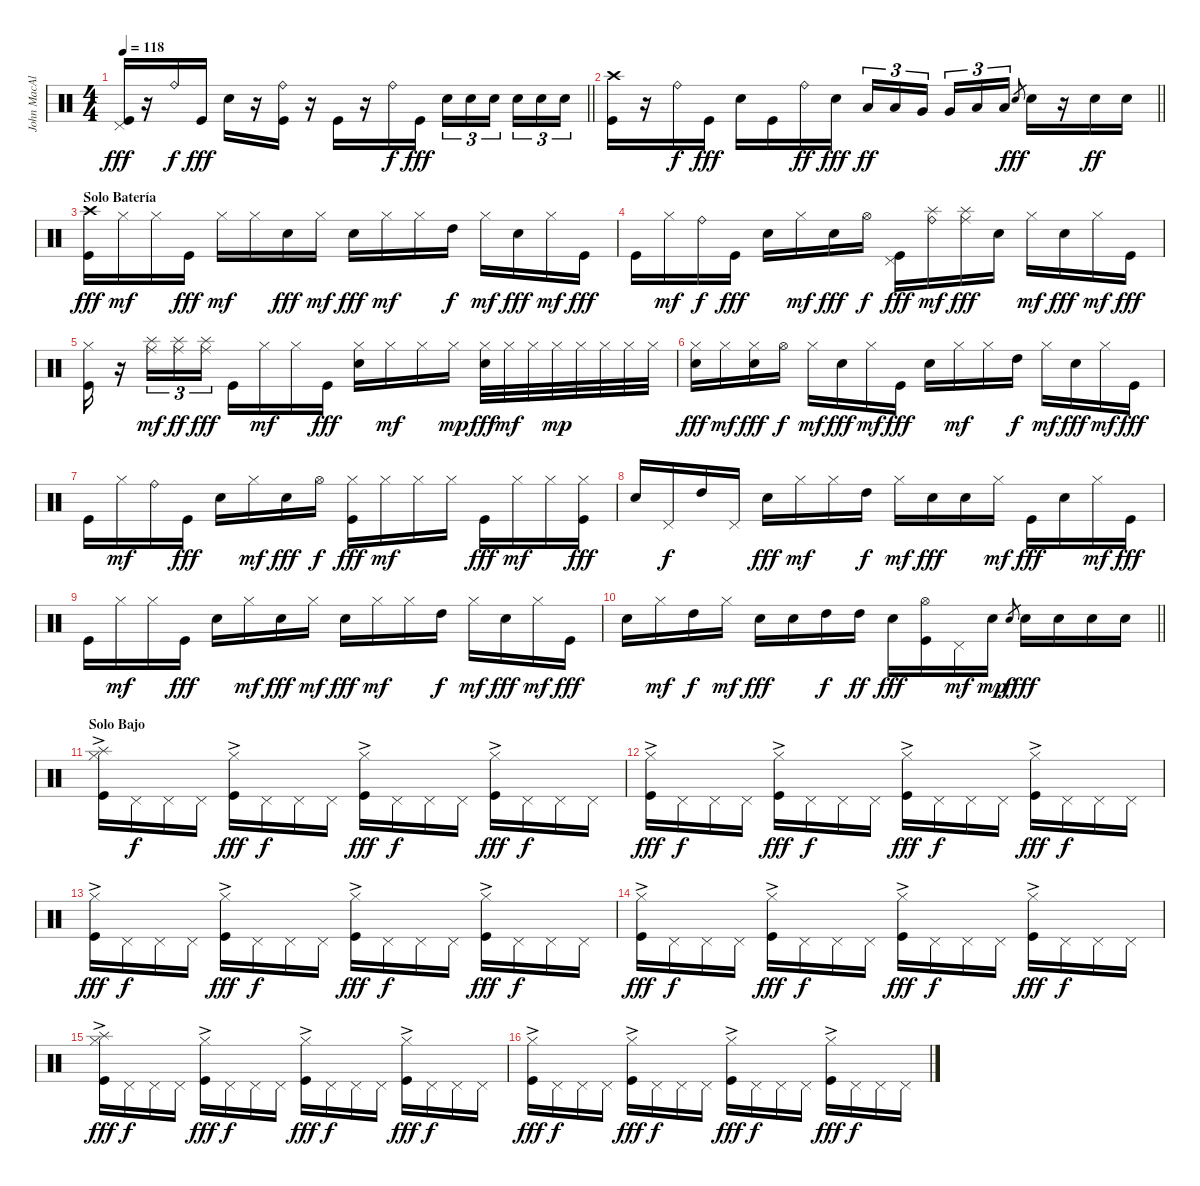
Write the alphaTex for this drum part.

\track ("John MacAluso" "John MacAl") {instrument percussion}
\staff {score}
\articulation defaults
\ts (4 4)
\tempo 118
\clef neutral
\barLineRight lightlight
\ks c
("Pedal Hi-Hat (hit)" "Kick (hit)").16{dy fff} r.16 "Ride (bell)".16{dy f} "Kick (hit)".16{dy fff} "Electric Snare (hit)".16 r.16 ("Ride (bell)" "Kick (hit)").16 r.16 "Kick (hit)".16 r.16 "Ride (bell)".16{dy f} "Kick (hit)".16{dy fff} "Electric Snare (hit)".16{tu (3 2)} "Electric Snare (hit)".16{tu (3 2)} "Electric Snare (hit)".16{tu (3 2) beam splitsecondary} "Electric Snare (hit)".16{tu (3 2)} "Electric Snare (hit)".16{tu (3 2)} "Electric Snare (hit)".16{tu (3 2)} |
\barLineRight lightlight
("Crash high (hit)" "Kick (hit)").16 r.16 "Ride (bell)".16{dy f} "Kick (hit)".16{dy fff} "Electric Snare (hit)".16 "Kick (hit)".16 "Ride (bell)".16{dy ff} "Electric Snare (hit)".16{dy fff} "Low Tom (hit)".16{tu (3 2) dy ff} "Low Tom (hit)".16{tu (3 2)} "Very Low Tom (hit)".16{tu (3 2) beam splitsecondary} "Very Low Tom (hit)".16{tu (3 2)} "Low Floor Tom (hit)".16{tu (3 2)} "Low Floor Tom (hit)".16{tu (3 2)} "Electric Snare (hit)".8{gr dy fff} "Electric Snare (hit)".16 r.16 "Electric Snare (hit)".16{dy ff} "Electric Snare (hit)".16 |
\section ("" "Solo Batería")
("Crash high (hit)" "Kick (hit)").16{dy fff} "Hi-Hat (closed)".16{dy mf} "Hi-Hat (closed)".16 "Kick (hit)".16{dy fff} "Hi-Hat (closed)".16{dy mf} "Hi-Hat (closed)".16 "Electric Snare (hit)".16{dy fff} "Hi-Hat (closed)".16{dy mf} "Electric Snare (hit)".16{dy fff} "Hi-Hat (closed)".16{dy mf} "Hi-Hat (closed)".16 "High Tom (hit)".16{dy f} "Hi-Hat (closed)".16{dy mf} "Electric Snare (hit)".16{dy fff} "Hi-Hat (closed)".16{dy mf} "Kick (hit)".16{dy fff} |
"Kick (hit)".16 "Hi-Hat (closed)".16{dy mf} "Ride (bell)".16{dy f} "Kick (hit)".16{dy fff} "Electric Snare (hit)".16 "Hi-Hat (closed)".16{dy mf} "Electric Snare (hit)".16{dy fff} "Hi-Hat (open)".16{dy f} ("Pedal Hi-Hat (hit)" "Kick (hit)").16{dy fff} ("Ride (bell)" "Splash (hit)").16{dy mf} ("Ride (middle)" "Splash (hit)").16{dy fff} "Electric Snare (hit)".16 "Hi-Hat (closed)".16{dy mf} "Electric Snare (hit)".16{dy fff} "Hi-Hat (closed)".16{dy mf} "Kick (hit)".16{dy fff} |
("Hi-Hat (closed)" "Kick (hit)").16 r.16 ("Ride (middle)" "Splash (hit)").16{tu (3 2) dy mf} ("Ride (middle)" "Splash (hit)").16{tu (3 2) dy ff} ("Ride (middle)" "Splash (hit)").16{tu (3 2) dy fff} "Kick (hit)".16 "Hi-Hat (closed)".16{dy mf} "Hi-Hat (closed)".16 "Kick (hit)".16{dy fff} ("Hi-Hat (closed)" "Electric Snare (hit)").16 "Hi-Hat (closed)".16{dy mf} "Hi-Hat (closed)".16 "Hi-Hat (closed)".16{dy mp} ("Hi-Hat (closed)" "Electric Snare (hit)").32{dy fff} "Hi-Hat (closed)".32{dy mf} "Hi-Hat (closed)".32 "Hi-Hat (closed)".32{dy mp} "Hi-Hat (closed)".32 "Hi-Hat (closed)".32 "Hi-Hat (closed)".32 "Hi-Hat (closed)".32 |
("Hi-Hat (closed)" "Electric Snare (hit)").16{dy fff} "Hi-Hat (closed)".16{dy mf} ("Hi-Hat (closed)" "Electric Snare (hit)").16{dy fff} "Hi-Hat (open)".16{dy f} "Hi-Hat (closed)".16{dy mf} "Electric Snare (hit)".16{dy fff} "Hi-Hat (closed)".16{dy mf} "Kick (hit)".16{dy fff} "Electric Snare (hit)".16 "Hi-Hat (closed)".16{dy mf} "Hi-Hat (closed)".16 "High Tom (hit)".16{dy f} "Hi-Hat (closed)".16{dy mf} "Electric Snare (hit)".16{dy fff} "Hi-Hat (closed)".16{dy mf} "Kick (hit)".16{dy fff} |
"Kick (hit)".16 "Hi-Hat (closed)".16{dy mf} "Ride (bell)".16 "Kick (hit)".16{dy fff} "Electric Snare (hit)".16 "Hi-Hat (closed)".16{dy mf} "Electric Snare (hit)".16{dy fff} "Hi-Hat (open)".16{dy f} ("Hi-Hat (closed)" "Kick (hit)").16{dy fff} "Hi-Hat (closed)".16{dy mf} "Hi-Hat (closed)".16 "Hi-Hat (closed)".16 "Kick (hit)".16{dy fff} "Hi-Hat (closed)".16{dy mf} "Hi-Hat (closed)".16 ("Hi-Hat (closed)" "Kick (hit)").16{dy fff} |
"Electric Snare (hit)".16 "Pedal Hi-Hat (hit)".16{dy f} "High Tom (hit)".16 "Pedal Hi-Hat (hit)".16 "Electric Snare (hit)".16{dy fff} "Hi-Hat (closed)".16{dy mf} "Hi-Hat (closed)".16 "High Tom (hit)".16{dy f} "Hi-Hat (closed)".16{dy mf} "Electric Snare (hit)".16{dy fff} "Electric Snare (hit)".16 "Hi-Hat (closed)".16{dy mf} "Kick (hit)".16{dy fff} "Electric Snare (hit)".16 "Hi-Hat (closed)".16{dy mf} "Kick (hit)".16{dy fff} |
"Kick (hit)".16 "Hi-Hat (closed)".16{dy mf} "Hi-Hat (closed)".16 "Kick (hit)".16{dy fff} "Electric Snare (hit)".16 "Hi-Hat (closed)".16{dy mf} "Electric Snare (hit)".16{dy fff} "Hi-Hat (closed)".16{dy mf} "Electric Snare (hit)".16{dy fff} "Hi-Hat (closed)".16{dy mf} "Hi-Hat (closed)".16 "High Tom (hit)".16{dy f} "Hi-Hat (closed)".16{dy mf} "Electric Snare (hit)".16{dy fff} "Hi-Hat (closed)".16{dy mf} "Kick (hit)".16{dy fff} |
\barLineRight lightlight "Electric Snare (hit)".16 "Hi-Hat (closed)".16{dy mf} "High Tom (hit)".16{dy f} "Hi-Hat (closed)".16{dy mf} "Electric Snare (hit)".16{dy fff} "Electric Snare (hit)".16 "High Tom (hit)".16{dy f} "High Tom (hit)".16{dy ff} "Electric Snare (hit)".16{dy fff}
("Hi-Hat (open)" "Kick (hit)").16 "Pedal Hi-Hat (hit)".16{dy mf} "Electric Snare (hit)".16{dy mp} "Electric Snare (hit)".8{gr dy f} "Electric Snare (hit)".16{dy fff} "Electric Snare (hit)".16 "Electric Snare (hit)".16 "Electric Snare (hit)".16 |
\section ("" "Solo Bajo")
("Splash (hit)" "Hi-Hat (closed)"{ac} "Kick (hit)").16{volume 12} "Pedal Hi-Hat (hit)".16{dy f} "Pedal Hi-Hat (hit)".16 "Pedal Hi-Hat (hit)".16 ("Hi-Hat (closed)"{ac} "Kick (hit)").16{dy fff} "Pedal Hi-Hat (hit)".16{dy f} "Pedal Hi-Hat (hit)".16 "Pedal Hi-Hat (hit)".16 ("Hi-Hat (closed)"{ac} "Kick (hit)").16{dy fff} "Pedal Hi-Hat (hit)".16{dy f} "Pedal Hi-Hat (hit)".16 "Pedal Hi-Hat (hit)".16 ("Hi-Hat (closed)"{ac} "Kick (hit)").16{dy fff} "Pedal Hi-Hat (hit)".16{dy f} "Pedal Hi-Hat (hit)".16 "Pedal Hi-Hat (hit)".16 |
("Hi-Hat (closed)"{ac} "Kick (hit)").16{dy fff} "Pedal Hi-Hat (hit)".16{dy f} "Pedal Hi-Hat (hit)".16 "Pedal Hi-Hat (hit)".16 ("Hi-Hat (closed)"{ac} "Kick (hit)").16{dy fff} "Pedal Hi-Hat (hit)".16{dy f} "Pedal Hi-Hat (hit)".16 "Pedal Hi-Hat (hit)".16 ("Hi-Hat (closed)"{ac} "Kick (hit)").16{dy fff} "Pedal Hi-Hat (hit)".16{dy f} "Pedal Hi-Hat (hit)".16 "Pedal Hi-Hat (hit)".16 ("Hi-Hat (closed)"{ac} "Kick (hit)").16{dy fff} "Pedal Hi-Hat (hit)".16{dy f} "Pedal Hi-Hat (hit)".16 "Pedal Hi-Hat (hit)".16 |
("Hi-Hat (closed)"{ac} "Kick (hit)").16{dy fff} "Pedal Hi-Hat (hit)".16{dy f} "Pedal Hi-Hat (hit)".16 "Pedal Hi-Hat (hit)".16 ("Hi-Hat (closed)"{ac} "Kick (hit)").16{dy fff} "Pedal Hi-Hat (hit)".16{dy f} "Pedal Hi-Hat (hit)".16 "Pedal Hi-Hat (hit)".16 ("Hi-Hat (closed)"{ac} "Kick (hit)").16{dy fff} "Pedal Hi-Hat (hit)".16{dy f} "Pedal Hi-Hat (hit)".16 "Pedal Hi-Hat (hit)".16 ("Hi-Hat (closed)"{ac} "Kick (hit)").16{dy fff} "Pedal Hi-Hat (hit)".16{dy f} "Pedal Hi-Hat (hit)".16 "Pedal Hi-Hat (hit)".16 |
("Hi-Hat (closed)"{ac} "Kick (hit)").16{dy fff} "Pedal Hi-Hat (hit)".16{dy f} "Pedal Hi-Hat (hit)".16 "Pedal Hi-Hat (hit)".16 ("Hi-Hat (closed)"{ac} "Kick (hit)").16{dy fff} "Pedal Hi-Hat (hit)".16{dy f} "Pedal Hi-Hat (hit)".16 "Pedal Hi-Hat (hit)".16 ("Hi-Hat (closed)"{ac} "Kick (hit)").16{dy fff} "Pedal Hi-Hat (hit)".16{dy f} "Pedal Hi-Hat (hit)".16 "Pedal Hi-Hat (hit)".16 ("Hi-Hat (closed)"{ac} "Kick (hit)").16{dy fff} "Pedal Hi-Hat (hit)".16{dy f} "Pedal Hi-Hat (hit)".16 "Pedal Hi-Hat (hit)".16 |
("Splash (hit)" "Hi-Hat (closed)"{ac} "Kick (hit)").16{dy fff} "Pedal Hi-Hat (hit)".16{dy f} "Pedal Hi-Hat (hit)".16 "Pedal Hi-Hat (hit)".16 ("Hi-Hat (closed)"{ac} "Kick (hit)").16{dy fff} "Pedal Hi-Hat (hit)".16{dy f} "Pedal Hi-Hat (hit)".16 "Pedal Hi-Hat (hit)".16 ("Hi-Hat (closed)"{ac} "Kick (hit)").16{dy fff} "Pedal Hi-Hat (hit)".16{dy f} "Pedal Hi-Hat (hit)".16 "Pedal Hi-Hat (hit)".16 ("Hi-Hat (closed)"{ac} "Kick (hit)").16{dy fff} "Pedal Hi-Hat (hit)".16{dy f} "Pedal Hi-Hat (hit)".16 "Pedal Hi-Hat (hit)".16 |
("Hi-Hat (closed)"{ac} "Kick (hit)").16{dy fff} "Pedal Hi-Hat (hit)".16{dy f} "Pedal Hi-Hat (hit)".16 "Pedal Hi-Hat (hit)".16 ("Hi-Hat (closed)"{ac} "Kick (hit)").16{dy fff} "Pedal Hi-Hat (hit)".16{dy f} "Pedal Hi-Hat (hit)".16 "Pedal Hi-Hat (hit)".16 ("Hi-Hat (closed)"{ac} "Kick (hit)").16{dy fff} "Pedal Hi-Hat (hit)".16{dy f} "Pedal Hi-Hat (hit)".16 "Pedal Hi-Hat (hit)".16 ("Hi-Hat (closed)"{ac} "Kick (hit)").16{dy fff} "Pedal Hi-Hat (hit)".16{dy f} "Pedal Hi-Hat (hit)".16 "Pedal Hi-Hat (hit)".16
